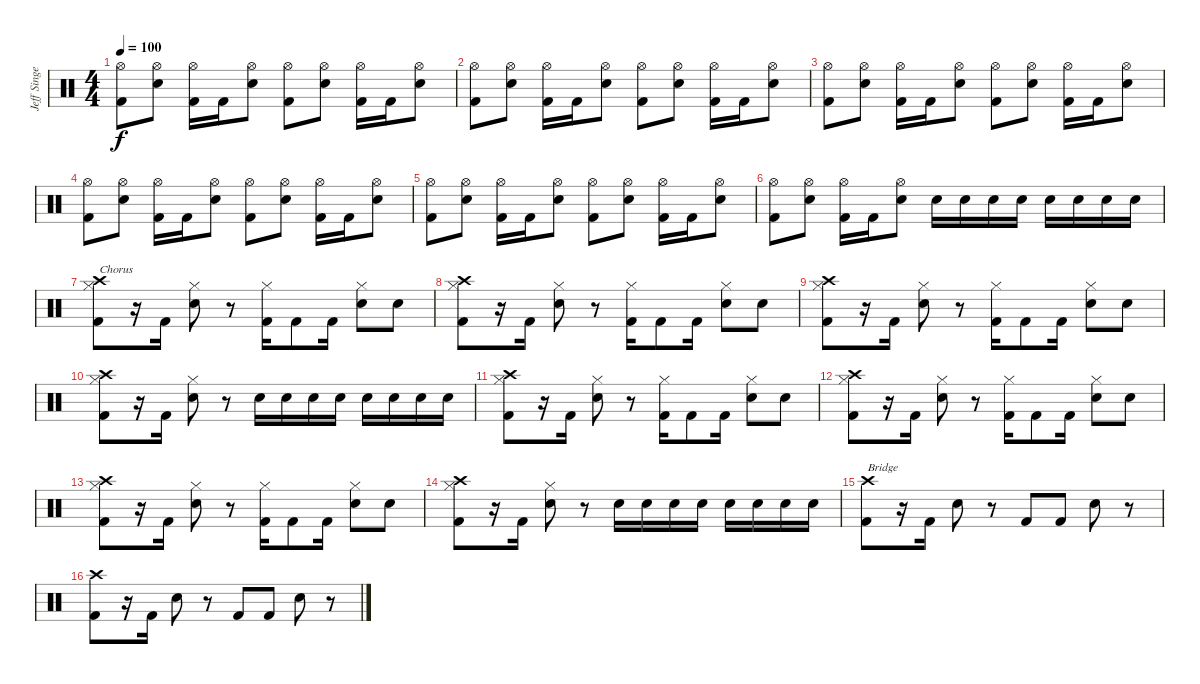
\track ("Jeff Singer" "Jeff Singe") {instrument percussion}
\staff {score}
\articulation defaults
\ts (4 4)
\tempo 100
\clef neutral
\ks c
("Hi-Hat (open)" "Kick (hit) 2").8{dy f} ("Hi-Hat (open)" "Snare (hit) 2").8 ("Hi-Hat (open)" "Kick (hit) 2").16 "Kick (hit) 2".16 ("Hi-Hat (open)" "Snare (hit) 2").8 ("Hi-Hat (open)" "Kick (hit) 2").8 ("Hi-Hat (open)" "Snare (hit) 2").8 ("Hi-Hat (open)" "Kick (hit) 2").16 "Kick (hit) 2".16 ("Hi-Hat (open)" "Snare (hit) 2").8 |
("Hi-Hat (open)" "Kick (hit) 2").8 ("Hi-Hat (open)" "Snare (hit) 2").8 ("Hi-Hat (open)" "Kick (hit) 2").16 "Kick (hit) 2".16 ("Hi-Hat (open)" "Snare (hit) 2").8 ("Hi-Hat (open)" "Kick (hit) 2").8 ("Hi-Hat (open)" "Snare (hit) 2").8 ("Hi-Hat (open)" "Kick (hit) 2").16 "Kick (hit) 2".16 ("Hi-Hat (open)" "Snare (hit) 2").8 |
("Hi-Hat (open)" "Kick (hit) 2").8 ("Hi-Hat (open)" "Snare (hit) 2").8 ("Hi-Hat (open)" "Kick (hit) 2").16 "Kick (hit) 2".16 ("Hi-Hat (open)" "Snare (hit) 2").8 ("Hi-Hat (open)" "Kick (hit) 2").8 ("Hi-Hat (open)" "Snare (hit) 2").8 ("Hi-Hat (open)" "Kick (hit) 2").16 "Kick (hit) 2".16 ("Hi-Hat (open)" "Snare (hit) 2").8 |
("Hi-Hat (open)" "Kick (hit) 2").8 ("Hi-Hat (open)" "Snare (hit) 2").8 ("Hi-Hat (open)" "Kick (hit) 2").16 "Kick (hit) 2".16 ("Hi-Hat (open)" "Snare (hit) 2").8 ("Hi-Hat (open)" "Kick (hit) 2").8 ("Hi-Hat (open)" "Snare (hit) 2").8 ("Hi-Hat (open)" "Kick (hit) 2").16 "Kick (hit) 2".16 ("Hi-Hat (open)" "Snare (hit) 2").8 |
("Hi-Hat (open)" "Kick (hit) 2").8 ("Hi-Hat (open)" "Snare (hit) 2").8 ("Hi-Hat (open)" "Kick (hit) 2").16 "Kick (hit) 2".16 ("Hi-Hat (open)" "Snare (hit) 2").8 ("Hi-Hat (open)" "Kick (hit) 2").8 ("Hi-Hat (open)" "Snare (hit) 2").8 ("Hi-Hat (open)" "Kick (hit) 2").16 "Kick (hit) 2".16 ("Hi-Hat (open)" "Snare (hit) 2").8 |
("Hi-Hat (open)" "Kick (hit) 2").8 ("Hi-Hat (open)" "Snare (hit) 2").8 ("Hi-Hat (open)" "Kick (hit) 2").16 "Kick (hit) 2".16 ("Hi-Hat (open)" "Snare (hit) 2").8 "Snare (hit) 2".16 "Snare (hit) 2".16 "Snare (hit) 2".16 "Snare (hit) 2".16 "Snare (hit) 2".16 "Snare (hit) 2".16 "Snare (hit) 2".16 "Snare (hit) 2".16 |
("Hi-Hat (closed)" "Kick (hit) 2" "Crash high (hit)").8{txt "Chorus"} r.16 "Kick (hit) 2".16 ("Hi-Hat (closed)" "Snare (hit) 2").8 r.8 ("Hi-Hat (closed)" "Kick (hit) 2").16 "Kick (hit) 2".8 "Kick (hit) 2".16 ("Hi-Hat (closed)" "Snare (hit) 2").8 "Snare (hit) 2".8 |
("Hi-Hat (closed)" "Kick (hit) 2" "Crash high (hit)").8 r.16 "Kick (hit) 2".16 ("Hi-Hat (closed)" "Snare (hit) 2").8 r.8 ("Hi-Hat (closed)" "Kick (hit) 2").16 "Kick (hit) 2".8 "Kick (hit) 2".16 ("Hi-Hat (closed)" "Snare (hit) 2").8 "Snare (hit) 2".8 |
("Hi-Hat (closed)" "Kick (hit) 2" "Crash high (hit)").8 r.16 "Kick (hit) 2".16 ("Hi-Hat (closed)" "Snare (hit) 2").8 r.8 ("Hi-Hat (closed)" "Kick (hit) 2").16 "Kick (hit) 2".8 "Kick (hit) 2".16 ("Hi-Hat (closed)" "Snare (hit) 2").8 "Snare (hit) 2".8 |
("Hi-Hat (closed)" "Kick (hit) 2" "Crash high (hit)").8 r.16 "Kick (hit) 2".16 ("Hi-Hat (closed)" "Snare (hit) 2").8 r.8 "Snare (hit) 2".16 "Snare (hit) 2".16 "Snare (hit) 2".16 "Snare (hit) 2".16 "Snare (hit) 2".16 "Snare (hit) 2".16 "Snare (hit) 2".16 "Snare (hit) 2".16 |
("Hi-Hat (closed)" "Kick (hit) 2" "Crash high (hit)").8 r.16 "Kick (hit) 2".16 ("Hi-Hat (closed)" "Snare (hit) 2").8 r.8 ("Hi-Hat (closed)" "Kick (hit) 2").16 "Kick (hit) 2".8 "Kick (hit) 2".16 ("Hi-Hat (closed)" "Snare (hit) 2").8 "Snare (hit) 2".8 |
("Hi-Hat (closed)" "Kick (hit) 2" "Crash high (hit)").8 r.16 "Kick (hit) 2".16 ("Hi-Hat (closed)" "Snare (hit) 2").8 r.8 ("Hi-Hat (closed)" "Kick (hit) 2").16 "Kick (hit) 2".8 "Kick (hit) 2".16 ("Hi-Hat (closed)" "Snare (hit) 2").8 "Snare (hit) 2".8 |
("Hi-Hat (closed)" "Kick (hit) 2" "Crash high (hit)").8 r.16 "Kick (hit) 2".16 ("Hi-Hat (closed)" "Snare (hit) 2").8 r.8 ("Hi-Hat (closed)" "Kick (hit) 2").16 "Kick (hit) 2".8 "Kick (hit) 2".16 ("Hi-Hat (closed)" "Snare (hit) 2").8 "Snare (hit) 2".8 |
("Hi-Hat (closed)" "Kick (hit) 2" "Crash high (hit)").8 r.16 "Kick (hit) 2".16 ("Hi-Hat (closed)" "Snare (hit) 2").8 r.8 "Snare (hit) 2".16 "Snare (hit) 2".16 "Snare (hit) 2".16 "Snare (hit) 2".16 "Snare (hit) 2".16 "Snare (hit) 2".16 "Snare (hit) 2".16 "Snare (hit) 2".16 |
("Kick (hit) 2" "Crash high (hit)").8{txt "Bridge"} r.16 "Kick (hit) 2".16 "Snare (hit) 2".8 r.8 "Kick (hit) 2".8 "Kick (hit) 2".8 "Snare (hit) 2".8 r.8 |
("Kick (hit) 2" "Crash high (hit)").8 r.16 "Kick (hit) 2".16 "Snare (hit) 2".8 r.8 "Kick (hit) 2".8 "Kick (hit) 2".8 "Snare (hit) 2".8 r.8
